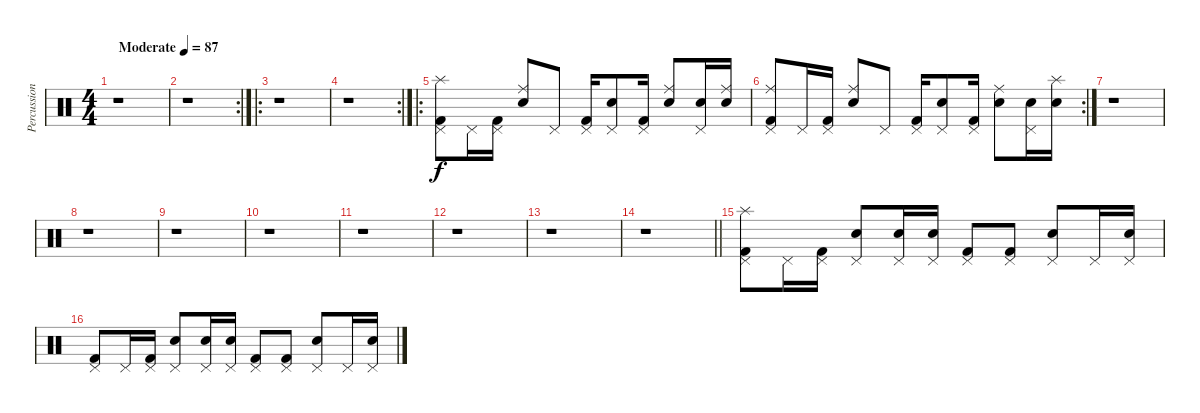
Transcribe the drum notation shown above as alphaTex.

\track ("Percussions" "Percussion") {instrument percussion}
\staff {score}
\articulation defaults
\ts (4 4)
\tempo (87 "Moderate")
\clef neutral
\ks c
r.1{dy f} |
\rc 2
r.1 |
\ro
r.1 |
\rc 2
r.1 |
\ro
("Splash (hit)" "Pedal Hi-Hat (hit)" "Kick (hit) 2").8 "Pedal Hi-Hat (hit)".16 ("Pedal Hi-Hat (hit)" "Kick (hit) 2").16 ("Ride (middle)" "Snare (hit) 2").8 "Pedal Hi-Hat (hit)".8 ("Pedal Hi-Hat (hit)" "Kick (hit) 2").16 ("Pedal Hi-Hat (hit)" "Snare (hit) 2").8 ("Pedal Hi-Hat (hit)" "Kick (hit) 2").16 ("Ride (middle)" "Snare (hit) 2").8 ("Pedal Hi-Hat (hit)" "Snare (hit) 2").16 ("Ride (middle)" "Snare (hit) 2").16 |
\rc 2
("Ride (middle)" "Pedal Hi-Hat (hit)" "Kick (hit) 2").8 "Pedal Hi-Hat (hit)".16 ("Pedal Hi-Hat (hit)" "Kick (hit) 2").16 ("Ride (middle)" "Snare (hit) 2").8 "Pedal Hi-Hat (hit)".8 ("Pedal Hi-Hat (hit)" "Kick (hit) 2").16 ("Pedal Hi-Hat (hit)" "Snare (hit) 2").8 ("Pedal Hi-Hat (hit)" "Kick (hit) 2").16 ("Ride (middle)" "Snare (hit) 2").8 ("Pedal Hi-Hat (hit)" "Snare (hit) 2").16 ("Splash (hit)" "Snare (hit) 2").16 |
r.1 |
r.1 |
r.1 |
r.1 |
r.1 |
r.1 |
r.1 |
\barLineRight lightlight
r.1 |
("Splash (hit)" "Pedal Hi-Hat (hit)" "Kick (hit) 2").8 "Pedal Hi-Hat (hit)".16 ("Pedal Hi-Hat (hit)" "Kick (hit) 2").16 ("Pedal Hi-Hat (hit)" "Snare (hit) 2").8 ("Pedal Hi-Hat (hit)" "Snare (hit) 2").16 ("Pedal Hi-Hat (hit)" "Snare (hit) 2").16 ("Pedal Hi-Hat (hit)" "Kick (hit) 2").8 ("Pedal Hi-Hat (hit)" "Kick (hit) 2").8 ("Pedal Hi-Hat (hit)" "Snare (hit) 2").8 "Pedal Hi-Hat (hit)".16 ("Pedal Hi-Hat (hit)" "Snare (hit) 2").16 |
("Pedal Hi-Hat (hit)" "Kick (hit) 2").8 "Pedal Hi-Hat (hit)".16 ("Pedal Hi-Hat (hit)" "Kick (hit) 2").16 ("Pedal Hi-Hat (hit)" "Snare (hit) 2").8 ("Pedal Hi-Hat (hit)" "Snare (hit) 2").16 ("Pedal Hi-Hat (hit)" "Snare (hit) 2").16 ("Pedal Hi-Hat (hit)" "Kick (hit) 2").8 ("Pedal Hi-Hat (hit)" "Kick (hit) 2").8 ("Pedal Hi-Hat (hit)" "Snare (hit) 2").8 "Pedal Hi-Hat (hit)".16 ("Pedal Hi-Hat (hit)" "Snare (hit) 2").16
